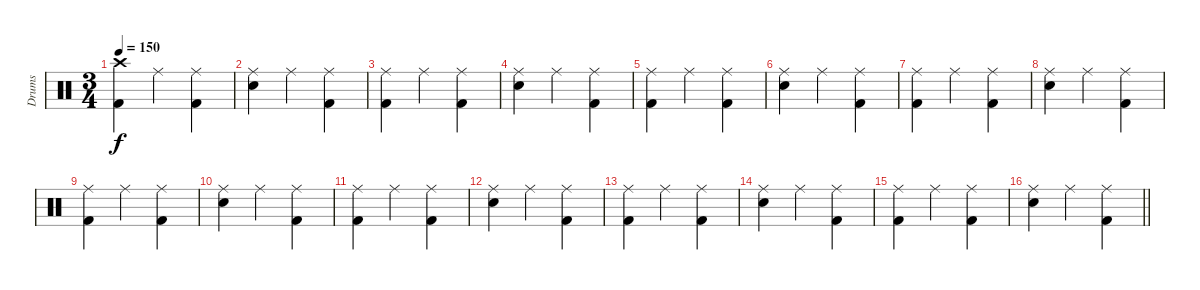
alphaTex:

\track ("Drums" "Drums") {instrument percussion}
\staff {score}
\articulation defaults
\ts (3 4)
\tempo 150
\clef neutral
\ks c
("Crash high (hit)" "Kick (hit) 2").4{dy f} "Ride (middle)".4 ("Ride (middle)" "Kick (hit) 2").4 |
("Ride (middle)" "Snare (hit) 2").4 "Ride (middle)".4 ("Ride (middle)" "Kick (hit) 2").4 |
("Ride (middle)" "Kick (hit) 2").4 "Ride (middle)".4 ("Ride (middle)" "Kick (hit) 2").4 |
("Ride (middle)" "Snare (hit) 2").4 "Ride (middle)".4 ("Ride (middle)" "Kick (hit) 2").4 |
("Ride (middle)" "Kick (hit) 2").4 "Ride (middle)".4 ("Ride (middle)" "Kick (hit) 2").4 |
("Ride (middle)" "Snare (hit) 2").4 "Ride (middle)".4 ("Ride (middle)" "Kick (hit) 2").4 |
("Ride (middle)" "Kick (hit) 2").4 "Ride (middle)".4 ("Ride (middle)" "Kick (hit) 2").4 |
("Ride (middle)" "Snare (hit) 2").4 "Ride (middle)".4 ("Ride (middle)" "Kick (hit) 2").4 |
("Ride (middle)" "Kick (hit) 2").4 "Ride (middle)".4 ("Ride (middle)" "Kick (hit) 2").4 |
("Ride (middle)" "Snare (hit) 2").4 "Ride (middle)".4 ("Ride (middle)" "Kick (hit) 2").4 |
("Ride (middle)" "Kick (hit) 2").4 "Ride (middle)".4 ("Ride (middle)" "Kick (hit) 2").4 |
("Ride (middle)" "Snare (hit) 2").4 "Ride (middle)".4 ("Ride (middle)" "Kick (hit) 2").4 |
("Ride (middle)" "Kick (hit) 2").4 "Ride (middle)".4 ("Ride (middle)" "Kick (hit) 2").4 |
("Ride (middle)" "Snare (hit) 2").4 "Ride (middle)".4 ("Ride (middle)" "Kick (hit) 2").4 |
("Ride (middle)" "Kick (hit) 2").4 "Ride (middle)".4 ("Ride (middle)" "Kick (hit) 2").4 |
\barLineRight lightlight
("Ride (middle)" "Snare (hit) 2").4 "Ride (middle)".4 ("Ride (middle)" "Kick (hit) 2").4
